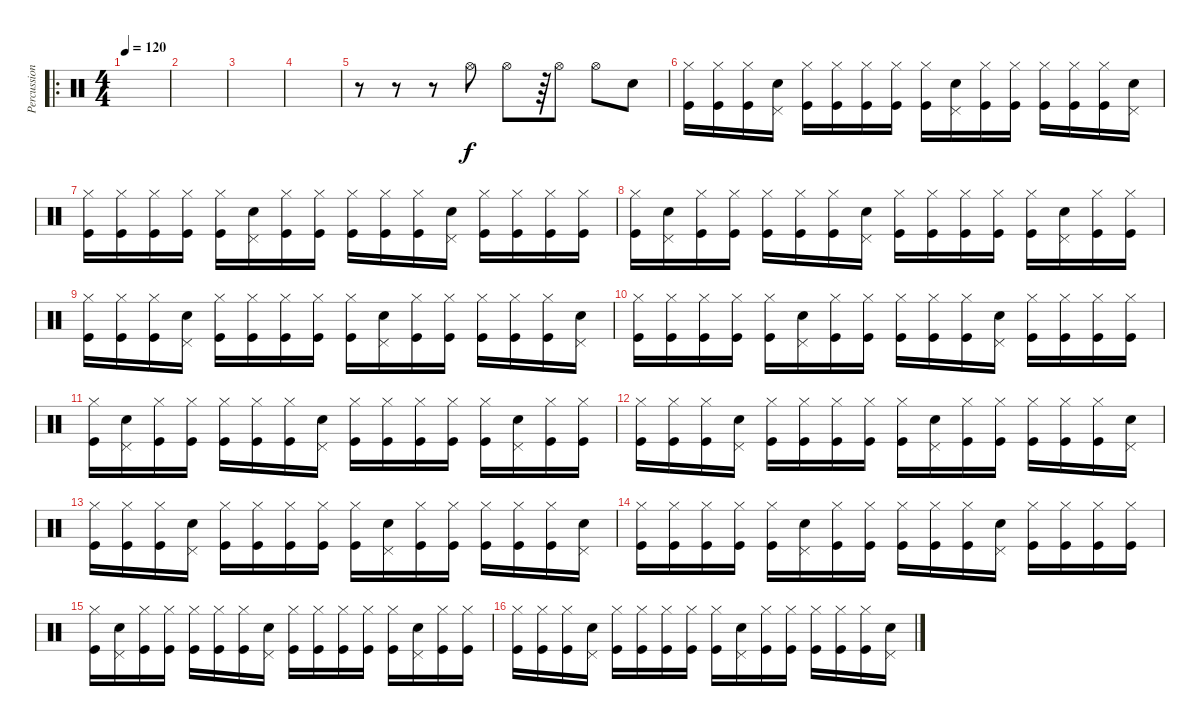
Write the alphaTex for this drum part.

\track ("Percussion" "Percussion") {instrument percussion}
\staff {score}
\articulation defaults
\ro
\ts (4 4)
\tempo 120
\clef neutral
\ks c
|
|
|
|
r.8 r.8 r.8 "Hi-Hat (open)".8 "Hi-Hat (open)".8 r.64 "Hi-Hat (open)".8 "Hi-Hat (open)".8 "Electric Snare (hit)".8 |
("Kick (hit)" "Hi-Hat (closed)").16 ("Kick (hit)" "Hi-Hat (closed)").16 ("Kick (hit)" "Hi-Hat (closed)").16 ("Electric Snare (hit)" "Pedal Hi-Hat (hit)").16 ("Kick (hit)" "Hi-Hat (closed)").16 ("Kick (hit)" "Hi-Hat (closed)").16 ("Kick (hit)" "Hi-Hat (closed)").16 ("Kick (hit)" "Hi-Hat (closed)").16 ("Kick (hit)" "Hi-Hat (closed)").16 ("Electric Snare (hit)" "Pedal Hi-Hat (hit)").16 ("Kick (hit)" "Hi-Hat (closed)").16 ("Kick (hit)" "Hi-Hat (closed)").16 ("Kick (hit)" "Hi-Hat (closed)").16 ("Kick (hit)" "Hi-Hat (closed)").16 ("Kick (hit)" "Hi-Hat (closed)").16 ("Electric Snare (hit)" "Pedal Hi-Hat (hit)").16 |
("Kick (hit)" "Hi-Hat (closed)").16 ("Kick (hit)" "Hi-Hat (closed)").16 ("Kick (hit)" "Hi-Hat (closed)").16 ("Kick (hit)" "Hi-Hat (closed)").16 ("Kick (hit)" "Hi-Hat (closed)").16 ("Electric Snare (hit)" "Pedal Hi-Hat (hit)").16 ("Kick (hit)" "Hi-Hat (closed)").16 ("Kick (hit)" "Hi-Hat (closed)").16 ("Kick (hit)" "Hi-Hat (closed)").16 ("Kick (hit)" "Hi-Hat (closed)").16 ("Kick (hit)" "Hi-Hat (closed)").16 ("Electric Snare (hit)" "Pedal Hi-Hat (hit)").16 ("Kick (hit)" "Hi-Hat (closed)").16 ("Kick (hit)" "Hi-Hat (closed)").16 ("Kick (hit)" "Hi-Hat (closed)").16 ("Kick (hit)" "Hi-Hat (closed)").16 |
("Kick (hit)" "Hi-Hat (closed)").16 ("Electric Snare (hit)" "Pedal Hi-Hat (hit)").16 ("Kick (hit)" "Hi-Hat (closed)").16 ("Kick (hit)" "Hi-Hat (closed)").16 ("Kick (hit)" "Hi-Hat (closed)").16 ("Kick (hit)" "Hi-Hat (closed)").16 ("Kick (hit)" "Hi-Hat (closed)").16 ("Electric Snare (hit)" "Pedal Hi-Hat (hit)").16 ("Kick (hit)" "Hi-Hat (closed)").16 ("Kick (hit)" "Hi-Hat (closed)").16 ("Kick (hit)" "Hi-Hat (closed)").16 ("Kick (hit)" "Hi-Hat (closed)").16 ("Kick (hit)" "Hi-Hat (closed)").16 ("Electric Snare (hit)" "Pedal Hi-Hat (hit)").16 ("Kick (hit)" "Hi-Hat (closed)").16 ("Kick (hit)" "Hi-Hat (closed)").16 |
("Kick (hit)" "Hi-Hat (closed)").16 ("Kick (hit)" "Hi-Hat (closed)").16 ("Kick (hit)" "Hi-Hat (closed)").16 ("Electric Snare (hit)" "Pedal Hi-Hat (hit)").16 ("Kick (hit)" "Hi-Hat (closed)").16 ("Kick (hit)" "Hi-Hat (closed)").16 ("Kick (hit)" "Hi-Hat (closed)").16 ("Kick (hit)" "Hi-Hat (closed)").16 ("Kick (hit)" "Hi-Hat (closed)").16 ("Electric Snare (hit)" "Pedal Hi-Hat (hit)").16 ("Kick (hit)" "Hi-Hat (closed)").16 ("Kick (hit)" "Hi-Hat (closed)").16 ("Kick (hit)" "Hi-Hat (closed)").16 ("Kick (hit)" "Hi-Hat (closed)").16 ("Kick (hit)" "Hi-Hat (closed)").16 ("Electric Snare (hit)" "Pedal Hi-Hat (hit)").16 |
("Kick (hit)" "Hi-Hat (closed)").16 ("Kick (hit)" "Hi-Hat (closed)").16 ("Kick (hit)" "Hi-Hat (closed)").16 ("Kick (hit)" "Hi-Hat (closed)").16 ("Kick (hit)" "Hi-Hat (closed)").16 ("Electric Snare (hit)" "Pedal Hi-Hat (hit)").16 ("Kick (hit)" "Hi-Hat (closed)").16 ("Kick (hit)" "Hi-Hat (closed)").16 ("Kick (hit)" "Hi-Hat (closed)").16 ("Kick (hit)" "Hi-Hat (closed)").16 ("Kick (hit)" "Hi-Hat (closed)").16 ("Electric Snare (hit)" "Pedal Hi-Hat (hit)").16 ("Kick (hit)" "Hi-Hat (closed)").16 ("Kick (hit)" "Hi-Hat (closed)").16 ("Kick (hit)" "Hi-Hat (closed)").16 ("Kick (hit)" "Hi-Hat (closed)").16 |
("Kick (hit)" "Hi-Hat (closed)").16 ("Electric Snare (hit)" "Pedal Hi-Hat (hit)").16 ("Kick (hit)" "Hi-Hat (closed)").16 ("Kick (hit)" "Hi-Hat (closed)").16 ("Kick (hit)" "Hi-Hat (closed)").16 ("Kick (hit)" "Hi-Hat (closed)").16 ("Kick (hit)" "Hi-Hat (closed)").16 ("Electric Snare (hit)" "Pedal Hi-Hat (hit)").16 ("Kick (hit)" "Hi-Hat (closed)").16 ("Kick (hit)" "Hi-Hat (closed)").16 ("Kick (hit)" "Hi-Hat (closed)").16 ("Kick (hit)" "Hi-Hat (closed)").16 ("Kick (hit)" "Hi-Hat (closed)").16 ("Electric Snare (hit)" "Pedal Hi-Hat (hit)").16 ("Kick (hit)" "Hi-Hat (closed)").16 ("Kick (hit)" "Hi-Hat (closed)").16 |
("Kick (hit)" "Hi-Hat (closed)").16 ("Kick (hit)" "Hi-Hat (closed)").16 ("Kick (hit)" "Hi-Hat (closed)").16 ("Electric Snare (hit)" "Pedal Hi-Hat (hit)").16 ("Kick (hit)" "Hi-Hat (closed)").16 ("Kick (hit)" "Hi-Hat (closed)").16 ("Kick (hit)" "Hi-Hat (closed)").16 ("Kick (hit)" "Hi-Hat (closed)").16 ("Kick (hit)" "Hi-Hat (closed)").16 ("Electric Snare (hit)" "Pedal Hi-Hat (hit)").16 ("Kick (hit)" "Hi-Hat (closed)").16 ("Kick (hit)" "Hi-Hat (closed)").16 ("Kick (hit)" "Hi-Hat (closed)").16 ("Kick (hit)" "Hi-Hat (closed)").16 ("Kick (hit)" "Hi-Hat (closed)").16 ("Electric Snare (hit)" "Pedal Hi-Hat (hit)").16 |
("Kick (hit)" "Hi-Hat (closed)").16 ("Kick (hit)" "Hi-Hat (closed)").16 ("Kick (hit)" "Hi-Hat (closed)").16 ("Electric Snare (hit)" "Pedal Hi-Hat (hit)").16 ("Kick (hit)" "Hi-Hat (closed)").16 ("Kick (hit)" "Hi-Hat (closed)").16 ("Kick (hit)" "Hi-Hat (closed)").16 ("Kick (hit)" "Hi-Hat (closed)").16 ("Kick (hit)" "Hi-Hat (closed)").16 ("Electric Snare (hit)" "Pedal Hi-Hat (hit)").16 ("Kick (hit)" "Hi-Hat (closed)").16 ("Kick (hit)" "Hi-Hat (closed)").16 ("Kick (hit)" "Hi-Hat (closed)").16 ("Kick (hit)" "Hi-Hat (closed)").16 ("Kick (hit)" "Hi-Hat (closed)").16 ("Electric Snare (hit)" "Pedal Hi-Hat (hit)").16 |
("Kick (hit)" "Hi-Hat (closed)").16 ("Kick (hit)" "Hi-Hat (closed)").16 ("Kick (hit)" "Hi-Hat (closed)").16 ("Kick (hit)" "Hi-Hat (closed)").16 ("Kick (hit)" "Hi-Hat (closed)").16 ("Electric Snare (hit)" "Pedal Hi-Hat (hit)").16 ("Kick (hit)" "Hi-Hat (closed)").16 ("Kick (hit)" "Hi-Hat (closed)").16 ("Kick (hit)" "Hi-Hat (closed)").16 ("Kick (hit)" "Hi-Hat (closed)").16 ("Kick (hit)" "Hi-Hat (closed)").16 ("Electric Snare (hit)" "Pedal Hi-Hat (hit)").16 ("Kick (hit)" "Hi-Hat (closed)").16 ("Kick (hit)" "Hi-Hat (closed)").16 ("Kick (hit)" "Hi-Hat (closed)").16 ("Kick (hit)" "Hi-Hat (closed)").16 |
("Kick (hit)" "Hi-Hat (closed)").16 ("Electric Snare (hit)" "Pedal Hi-Hat (hit)").16 ("Kick (hit)" "Hi-Hat (closed)").16 ("Kick (hit)" "Hi-Hat (closed)").16 ("Kick (hit)" "Hi-Hat (closed)").16 ("Kick (hit)" "Hi-Hat (closed)").16 ("Kick (hit)" "Hi-Hat (closed)").16 ("Electric Snare (hit)" "Pedal Hi-Hat (hit)").16 ("Kick (hit)" "Hi-Hat (closed)").16 ("Kick (hit)" "Hi-Hat (closed)").16 ("Kick (hit)" "Hi-Hat (closed)").16 ("Kick (hit)" "Hi-Hat (closed)").16 ("Kick (hit)" "Hi-Hat (closed)").16 ("Electric Snare (hit)" "Pedal Hi-Hat (hit)").16 ("Kick (hit)" "Hi-Hat (closed)").16 ("Kick (hit)" "Hi-Hat (closed)").16 |
("Kick (hit)" "Hi-Hat (closed)").16 ("Kick (hit)" "Hi-Hat (closed)").16 ("Kick (hit)" "Hi-Hat (closed)").16 ("Electric Snare (hit)" "Pedal Hi-Hat (hit)").16 ("Kick (hit)" "Hi-Hat (closed)").16 ("Kick (hit)" "Hi-Hat (closed)").16 ("Kick (hit)" "Hi-Hat (closed)").16 ("Kick (hit)" "Hi-Hat (closed)").16 ("Kick (hit)" "Hi-Hat (closed)").16 ("Electric Snare (hit)" "Pedal Hi-Hat (hit)").16 ("Kick (hit)" "Hi-Hat (closed)").16 ("Kick (hit)" "Hi-Hat (closed)").16 ("Kick (hit)" "Hi-Hat (closed)").16 ("Kick (hit)" "Hi-Hat (closed)").16 ("Kick (hit)" "Hi-Hat (closed)").16 ("Electric Snare (hit)" "Pedal Hi-Hat (hit)").16
